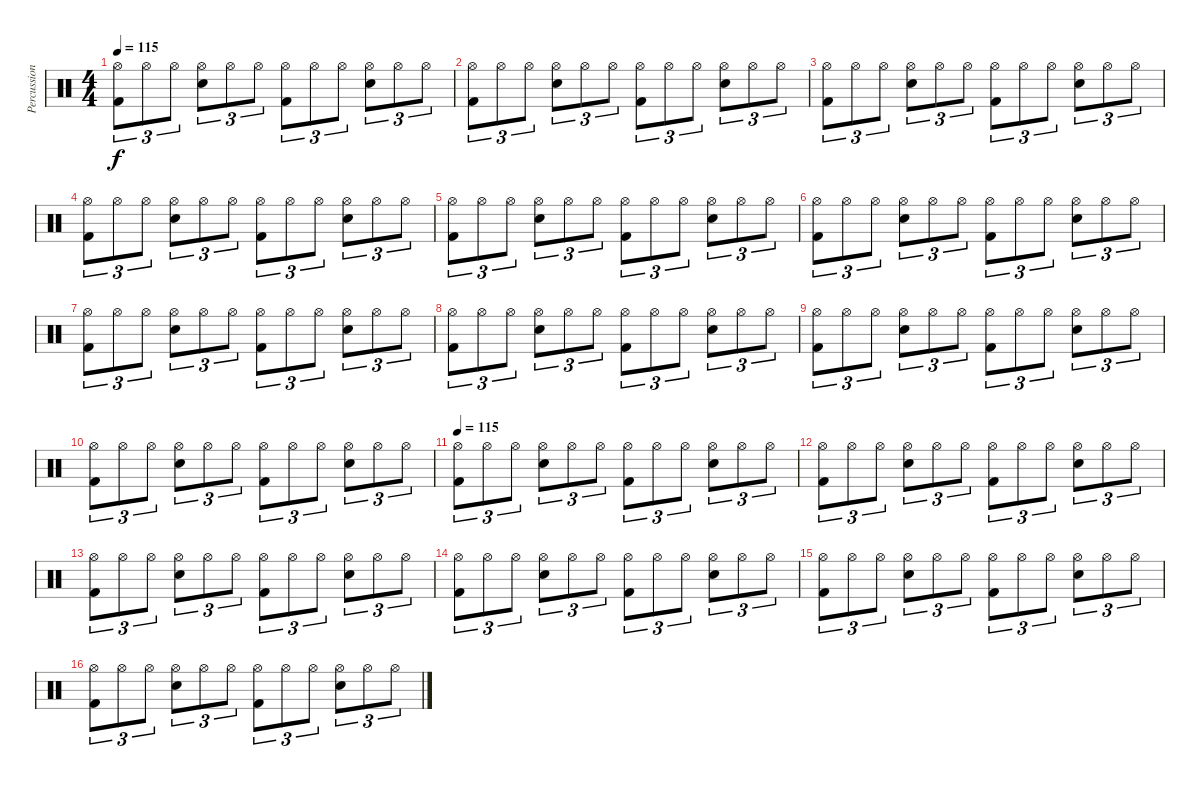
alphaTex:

\track ("Percussion" "Percussion") {instrument percussion}
\staff {score}
\articulation defaults
\ts (4 4)
\tempo 115
\clef neutral
\ks c
("Hi-Hat (open)" "Kick (hit) 2").8{tu (3 2) dy f} "Hi-Hat (open)".8{tu (3 2)} "Hi-Hat (open)".8{tu (3 2)} ("Hi-Hat (open)" "Snare (hit) 2").8{tu (3 2)} "Hi-Hat (open)".8{tu (3 2)} "Hi-Hat (open)".8{tu (3 2)} ("Hi-Hat (open)" "Kick (hit) 2").8{tu (3 2)} "Hi-Hat (open)".8{tu (3 2)} "Hi-Hat (open)".8{tu (3 2)} ("Hi-Hat (open)" "Snare (hit) 2").8{tu (3 2)} "Hi-Hat (open)".8{tu (3 2)} "Hi-Hat (open)".8{tu (3 2)} |
("Hi-Hat (open)" "Kick (hit) 2").8{tu (3 2)} "Hi-Hat (open)".8{tu (3 2)} "Hi-Hat (open)".8{tu (3 2)} ("Hi-Hat (open)" "Snare (hit) 2").8{tu (3 2)} "Hi-Hat (open)".8{tu (3 2)} "Hi-Hat (open)".8{tu (3 2)} ("Hi-Hat (open)" "Kick (hit) 2").8{tu (3 2)} "Hi-Hat (open)".8{tu (3 2)} "Hi-Hat (open)".8{tu (3 2)} ("Hi-Hat (open)" "Snare (hit) 2").8{tu (3 2)} "Hi-Hat (open)".8{tu (3 2)} "Hi-Hat (open)".8{tu (3 2)} |
("Hi-Hat (open)" "Kick (hit) 2").8{tu (3 2)} "Hi-Hat (open)".8{tu (3 2)} "Hi-Hat (open)".8{tu (3 2)} ("Hi-Hat (open)" "Snare (hit) 2").8{tu (3 2)} "Hi-Hat (open)".8{tu (3 2)} "Hi-Hat (open)".8{tu (3 2)} ("Hi-Hat (open)" "Kick (hit) 2").8{tu (3 2)} "Hi-Hat (open)".8{tu (3 2)} "Hi-Hat (open)".8{tu (3 2)} ("Hi-Hat (open)" "Snare (hit) 2").8{tu (3 2)} "Hi-Hat (open)".8{tu (3 2)} "Hi-Hat (open)".8{tu (3 2)} |
("Hi-Hat (open)" "Kick (hit) 2").8{tu (3 2)} "Hi-Hat (open)".8{tu (3 2)} "Hi-Hat (open)".8{tu (3 2)} ("Hi-Hat (open)" "Snare (hit) 2").8{tu (3 2)} "Hi-Hat (open)".8{tu (3 2)} "Hi-Hat (open)".8{tu (3 2)} ("Hi-Hat (open)" "Kick (hit) 2").8{tu (3 2)} "Hi-Hat (open)".8{tu (3 2)} "Hi-Hat (open)".8{tu (3 2)} ("Hi-Hat (open)" "Snare (hit) 2").8{tu (3 2)} "Hi-Hat (open)".8{tu (3 2)} "Hi-Hat (open)".8{tu (3 2)} |
("Hi-Hat (open)" "Kick (hit) 2").8{tu (3 2)} "Hi-Hat (open)".8{tu (3 2)} "Hi-Hat (open)".8{tu (3 2)} ("Hi-Hat (open)" "Snare (hit) 2").8{tu (3 2)} "Hi-Hat (open)".8{tu (3 2)} "Hi-Hat (open)".8{tu (3 2)} ("Hi-Hat (open)" "Kick (hit) 2").8{tu (3 2)} "Hi-Hat (open)".8{tu (3 2)} "Hi-Hat (open)".8{tu (3 2)} ("Hi-Hat (open)" "Snare (hit) 2").8{tu (3 2)} "Hi-Hat (open)".8{tu (3 2)} "Hi-Hat (open)".8{tu (3 2)} |
("Hi-Hat (open)" "Kick (hit) 2").8{tu (3 2)} "Hi-Hat (open)".8{tu (3 2)} "Hi-Hat (open)".8{tu (3 2)} ("Hi-Hat (open)" "Snare (hit) 2").8{tu (3 2)} "Hi-Hat (open)".8{tu (3 2)} "Hi-Hat (open)".8{tu (3 2)} ("Hi-Hat (open)" "Kick (hit) 2").8{tu (3 2)} "Hi-Hat (open)".8{tu (3 2)} "Hi-Hat (open)".8{tu (3 2)} ("Hi-Hat (open)" "Snare (hit) 2").8{tu (3 2)} "Hi-Hat (open)".8{tu (3 2)} "Hi-Hat (open)".8{tu (3 2)} |
("Hi-Hat (open)" "Kick (hit) 2").8{tu (3 2)} "Hi-Hat (open)".8{tu (3 2)} "Hi-Hat (open)".8{tu (3 2)} ("Hi-Hat (open)" "Snare (hit) 2").8{tu (3 2)} "Hi-Hat (open)".8{tu (3 2)} "Hi-Hat (open)".8{tu (3 2)} ("Hi-Hat (open)" "Kick (hit) 2").8{tu (3 2)} "Hi-Hat (open)".8{tu (3 2)} "Hi-Hat (open)".8{tu (3 2)} ("Hi-Hat (open)" "Snare (hit) 2").8{tu (3 2)} "Hi-Hat (open)".8{tu (3 2)} "Hi-Hat (open)".8{tu (3 2)} |
("Hi-Hat (open)" "Kick (hit) 2").8{tu (3 2)} "Hi-Hat (open)".8{tu (3 2)} "Hi-Hat (open)".8{tu (3 2)} ("Hi-Hat (open)" "Snare (hit) 2").8{tu (3 2)} "Hi-Hat (open)".8{tu (3 2)} "Hi-Hat (open)".8{tu (3 2)} ("Hi-Hat (open)" "Kick (hit) 2").8{tu (3 2)} "Hi-Hat (open)".8{tu (3 2)} "Hi-Hat (open)".8{tu (3 2)} ("Hi-Hat (open)" "Snare (hit) 2").8{tu (3 2)} "Hi-Hat (open)".8{tu (3 2)} "Hi-Hat (open)".8{tu (3 2)} |
("Hi-Hat (open)" "Kick (hit) 2").8{tu (3 2)} "Hi-Hat (open)".8{tu (3 2)} "Hi-Hat (open)".8{tu (3 2)} ("Hi-Hat (open)" "Snare (hit) 2").8{tu (3 2)} "Hi-Hat (open)".8{tu (3 2)} "Hi-Hat (open)".8{tu (3 2)} ("Hi-Hat (open)" "Kick (hit) 2").8{tu (3 2)} "Hi-Hat (open)".8{tu (3 2)} "Hi-Hat (open)".8{tu (3 2)} ("Hi-Hat (open)" "Snare (hit) 2").8{tu (3 2)} "Hi-Hat (open)".8{tu (3 2)} "Hi-Hat (open)".8{tu (3 2)} |
("Hi-Hat (open)" "Kick (hit) 2").8{tu (3 2)} "Hi-Hat (open)".8{tu (3 2)} "Hi-Hat (open)".8{tu (3 2)} ("Hi-Hat (open)" "Snare (hit) 2").8{tu (3 2)} "Hi-Hat (open)".8{tu (3 2)} "Hi-Hat (open)".8{tu (3 2)} ("Hi-Hat (open)" "Kick (hit) 2").8{tu (3 2)} "Hi-Hat (open)".8{tu (3 2)} "Hi-Hat (open)".8{tu (3 2)} ("Hi-Hat (open)" "Snare (hit) 2").8{tu (3 2)} "Hi-Hat (open)".8{tu (3 2)} "Hi-Hat (open)".8{tu (3 2)} |
\tempo 115
("Hi-Hat (open)" "Kick (hit) 2").8{tu (3 2)} "Hi-Hat (open)".8{tu (3 2)} "Hi-Hat (open)".8{tu (3 2)} ("Hi-Hat (open)" "Snare (hit) 2").8{tu (3 2)} "Hi-Hat (open)".8{tu (3 2)} "Hi-Hat (open)".8{tu (3 2)} ("Hi-Hat (open)" "Kick (hit) 2").8{tu (3 2)} "Hi-Hat (open)".8{tu (3 2)} "Hi-Hat (open)".8{tu (3 2)} ("Hi-Hat (open)" "Snare (hit) 2").8{tu (3 2)} "Hi-Hat (open)".8{tu (3 2)} "Hi-Hat (open)".8{tu (3 2)} |
("Hi-Hat (open)" "Kick (hit) 2").8{tu (3 2)} "Hi-Hat (open)".8{tu (3 2)} "Hi-Hat (open)".8{tu (3 2)} ("Hi-Hat (open)" "Snare (hit) 2").8{tu (3 2)} "Hi-Hat (open)".8{tu (3 2)} "Hi-Hat (open)".8{tu (3 2)} ("Hi-Hat (open)" "Kick (hit) 2").8{tu (3 2)} "Hi-Hat (open)".8{tu (3 2)} "Hi-Hat (open)".8{tu (3 2)} ("Hi-Hat (open)" "Snare (hit) 2").8{tu (3 2)} "Hi-Hat (open)".8{tu (3 2)} "Hi-Hat (open)".8{tu (3 2)} |
("Hi-Hat (open)" "Kick (hit) 2").8{tu (3 2)} "Hi-Hat (open)".8{tu (3 2)} "Hi-Hat (open)".8{tu (3 2)} ("Hi-Hat (open)" "Snare (hit) 2").8{tu (3 2)} "Hi-Hat (open)".8{tu (3 2)} "Hi-Hat (open)".8{tu (3 2)} ("Hi-Hat (open)" "Kick (hit) 2").8{tu (3 2)} "Hi-Hat (open)".8{tu (3 2)} "Hi-Hat (open)".8{tu (3 2)} ("Hi-Hat (open)" "Snare (hit) 2").8{tu (3 2)} "Hi-Hat (open)".8{tu (3 2)} "Hi-Hat (open)".8{tu (3 2)} |
("Hi-Hat (open)" "Kick (hit) 2").8{tu (3 2)} "Hi-Hat (open)".8{tu (3 2)} "Hi-Hat (open)".8{tu (3 2)} ("Hi-Hat (open)" "Snare (hit) 2").8{tu (3 2)} "Hi-Hat (open)".8{tu (3 2)} "Hi-Hat (open)".8{tu (3 2)} ("Hi-Hat (open)" "Kick (hit) 2").8{tu (3 2)} "Hi-Hat (open)".8{tu (3 2)} "Hi-Hat (open)".8{tu (3 2)} ("Hi-Hat (open)" "Snare (hit) 2").8{tu (3 2)} "Hi-Hat (open)".8{tu (3 2)} "Hi-Hat (open)".8{tu (3 2)} |
("Hi-Hat (open)" "Kick (hit) 2").8{tu (3 2)} "Hi-Hat (open)".8{tu (3 2)} "Hi-Hat (open)".8{tu (3 2)} ("Hi-Hat (open)" "Snare (hit) 2").8{tu (3 2)} "Hi-Hat (open)".8{tu (3 2)} "Hi-Hat (open)".8{tu (3 2)} ("Hi-Hat (open)" "Kick (hit) 2").8{tu (3 2)} "Hi-Hat (open)".8{tu (3 2)} "Hi-Hat (open)".8{tu (3 2)} ("Hi-Hat (open)" "Snare (hit) 2").8{tu (3 2)} "Hi-Hat (open)".8{tu (3 2)} "Hi-Hat (open)".8{tu (3 2)} |
("Hi-Hat (open)" "Kick (hit) 2").8{tu (3 2)} "Hi-Hat (open)".8{tu (3 2)} "Hi-Hat (open)".8{tu (3 2)} ("Hi-Hat (open)" "Snare (hit) 2").8{tu (3 2)} "Hi-Hat (open)".8{tu (3 2)} "Hi-Hat (open)".8{tu (3 2)} ("Hi-Hat (open)" "Kick (hit) 2").8{tu (3 2)} "Hi-Hat (open)".8{tu (3 2)} "Hi-Hat (open)".8{tu (3 2)} ("Hi-Hat (open)" "Snare (hit) 2").8{tu (3 2)} "Hi-Hat (open)".8{tu (3 2)} "Hi-Hat (open)".8{tu (3 2)}
